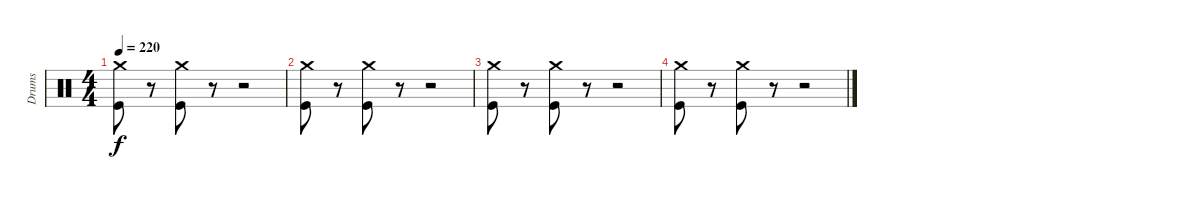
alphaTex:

\track ("Drums" "Drums") {instrument percussion}
\staff {score}
\articulation defaults
\ts (4 4)
\tempo 220
\clef neutral
\ks c
("Crash medium (hit)" "Kick (hit)").8{dy f} r.8 ("Crash medium (hit)" "Kick (hit)").8 r.8 r.2 |
("Crash medium (hit)" "Kick (hit)").8 r.8 ("Crash medium (hit)" "Kick (hit)").8 r.8 r.2 |
("Crash medium (hit)" "Kick (hit)").8 r.8 ("Crash medium (hit)" "Kick (hit)").8 r.8 r.2 |
("Crash medium (hit)" "Kick (hit)").8 r.8 ("Crash medium (hit)" "Kick (hit)").8 r.8 r.2
